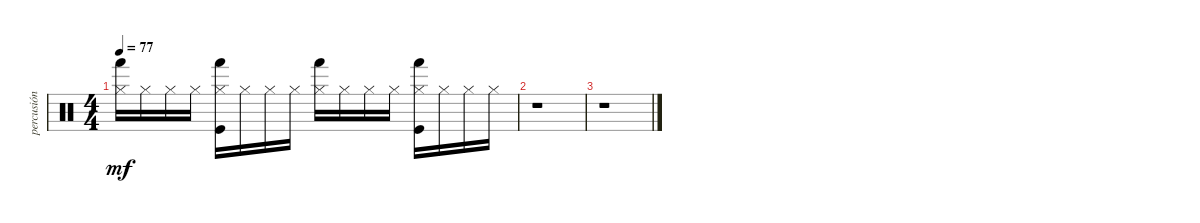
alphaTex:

\track ("percusión" "percusión") {instrument percussion}
\staff {score}
\articulation defaults
\ts (4 4)
\tempo 77
\clef neutral
\ks c
("Hand (hit)" "Hi-Hat (closed)").16{dy mf} "Hi-Hat (closed)".16 "Hi-Hat (closed)".16 "Hi-Hat (closed)".16 ("Kick (hit)" "Hand (hit)" "Hi-Hat (closed)").16 "Hi-Hat (closed)".16 "Hi-Hat (closed)".16 "Hi-Hat (closed)".16 ("Hand (hit)" "Hi-Hat (closed)").16 "Hi-Hat (closed)".16 "Hi-Hat (closed)".16 "Hi-Hat (closed)".16 ("Kick (hit)" "Hand (hit)" "Hi-Hat (closed)").16 "Hi-Hat (closed)".16 "Hi-Hat (closed)".16 "Hi-Hat (closed)".16 |
r.1 |
r.1
